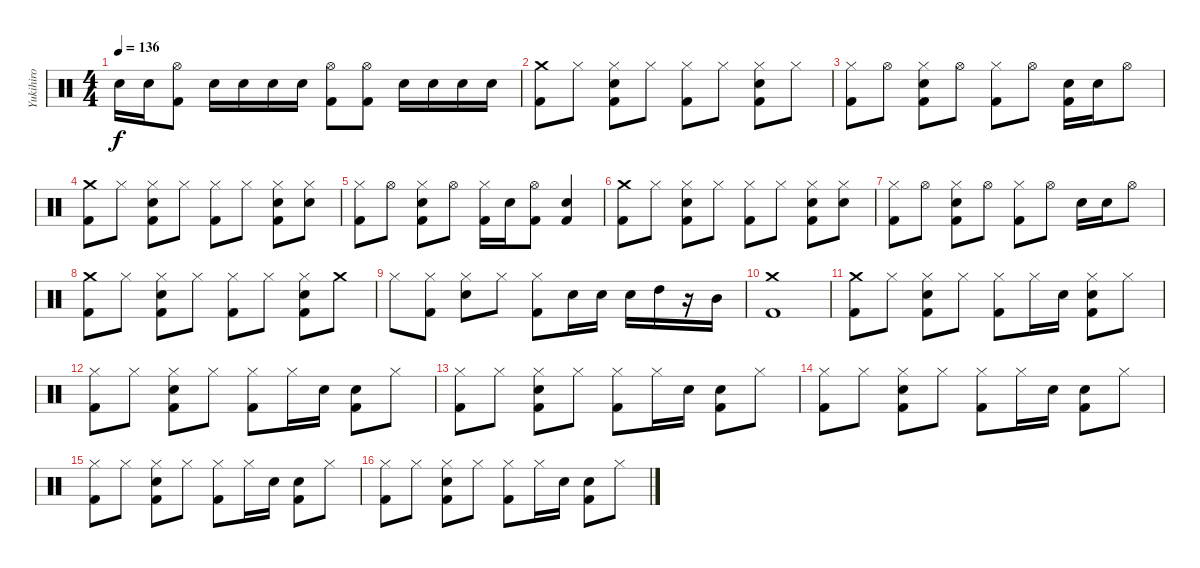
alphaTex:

\track ("Yukihiro" "Yukihiro") {instrument percussion}
\staff {score}
\articulation defaults
\ts (4 4)
\tempo 136
\clef neutral
\ks c "Snare (hit) 2".16{dy f} "Snare (hit) 2".16
("Hi-Hat (open)" "Kick (hit) 2").8 "Snare (hit) 2".16 "Snare (hit) 2".16 "Snare (hit) 2".16 "Snare (hit) 2".16 ("Hi-Hat (open)" "Kick (hit) 2").8 ("Hi-Hat (open)" "Kick (hit) 2").8 "Snare (hit) 2".16 "Snare (hit) 2".16 "Snare (hit) 2".16 "Snare (hit) 2".16 |
("Crash medium (hit)" "Kick (hit) 2").8 "Hi-Hat (closed)".8 ("Hi-Hat (closed)" "Snare (hit) 2" "Kick (hit) 2").8 "Hi-Hat (closed)".8 ("Hi-Hat (closed)" "Kick (hit) 2").8 "Hi-Hat (closed)".8 ("Hi-Hat (closed)" "Snare (hit) 2" "Kick (hit) 2").8 "Hi-Hat (closed)".8 |
("Hi-Hat (closed)" "Kick (hit) 2").8 "Hi-Hat (open)".8 ("Hi-Hat (closed)" "Snare (hit) 2" "Kick (hit) 2").8 "Hi-Hat (open)".8 ("Hi-Hat (closed)" "Kick (hit) 2").8 "Hi-Hat (open)".8 ("Snare (hit) 2" "Kick (hit) 2").16 "Snare (hit) 2".16 "Hi-Hat (open)".8 |
("Crash medium (hit)" "Kick (hit) 2").8 "Hi-Hat (closed)".8 ("Hi-Hat (closed)" "Snare (hit) 2" "Kick (hit) 2").8 "Hi-Hat (closed)".8 ("Hi-Hat (closed)" "Kick (hit) 2").8 "Hi-Hat (closed)".8 ("Hi-Hat (closed)" "Snare (hit) 2" "Kick (hit) 2").8 ("Hi-Hat (closed)" "Snare (hit) 2").8 |
("Hi-Hat (closed)" "Kick (hit) 2").8 "Hi-Hat (open)".8 ("Hi-Hat (closed)" "Snare (hit) 2" "Kick (hit) 2").8 "Hi-Hat (open)".8 ("Hi-Hat (closed)" "Kick (hit) 2").16 "Snare (hit) 2".16 ("Hi-Hat (open)" "Kick (hit) 2").8 ("Snare (hit) 2" "Kick (hit) 2").4 |
("Crash medium (hit)" "Kick (hit) 2").8 "Hi-Hat (closed)".8 ("Hi-Hat (closed)" "Snare (hit) 2" "Kick (hit) 2").8 "Hi-Hat (closed)".8 ("Hi-Hat (closed)" "Kick (hit) 2").8 "Hi-Hat (closed)".8 ("Hi-Hat (closed)" "Snare (hit) 2" "Kick (hit) 2").8 ("Hi-Hat (closed)" "Snare (hit) 2").8 |
("Hi-Hat (closed)" "Kick (hit) 2").8 "Hi-Hat (open)".8 ("Hi-Hat (closed)" "Snare (hit) 2" "Kick (hit) 2").8 "Hi-Hat (open)".8 ("Hi-Hat (closed)" "Kick (hit) 2").8 "Hi-Hat (open)".8 "Snare (hit) 2".16 "Snare (hit) 2".16 "Hi-Hat (open)".8 |
("Crash medium (hit)" "Kick (hit) 2").8 "Hi-Hat (closed)".8 ("Hi-Hat (closed)" "Snare (hit) 2" "Kick (hit) 2").8 "Hi-Hat (closed)".8 ("Hi-Hat (closed)" "Kick (hit) 2").8 "Hi-Hat (closed)".8 ("Hi-Hat (closed)" "Snare (hit) 2" "Kick (hit) 2").8 "Crash medium (hit)".8 |
"Hi-Hat (closed)".8 ("Hi-Hat (closed)" "Kick (hit) 2").8 ("Hi-Hat (closed)" "Snare (hit) 2").8 "Hi-Hat (closed)".8 ("Hi-Hat (closed)" "Kick (hit) 2").8 "Snare (hit) 2".16 "Snare (hit) 2".16 "Snare (hit) 2".16 "High Tom (hit)".16 r.16 "Mid Tom (hit)".16 |
("Crash medium (hit)" "Kick (hit) 2").1 |
("Crash medium (hit)" "Kick (hit) 2").8 "Hi-Hat (closed)".8 ("Hi-Hat (closed)" "Snare (hit) 2" "Kick (hit) 2").8 "Hi-Hat (closed)".8 ("Hi-Hat (closed)" "Kick (hit) 2").8 "Hi-Hat (closed)".16 "Snare (hit) 2".16 ("Hi-Hat (closed)" "Snare (hit) 2" "Kick (hit) 2").8 "Hi-Hat (closed)".8 |
("Hi-Hat (closed)" "Kick (hit) 2").8 "Hi-Hat (closed)".8 ("Hi-Hat (closed)" "Snare (hit) 2" "Kick (hit) 2").8 "Hi-Hat (closed)".8 ("Hi-Hat (closed)" "Kick (hit) 2").8 "Hi-Hat (closed)".16 "Snare (hit) 2".16 ("Snare (hit) 2" "Kick (hit) 2").8 "Hi-Hat (closed)".8 |
("Hi-Hat (closed)" "Kick (hit) 2").8 "Hi-Hat (closed)".8 ("Hi-Hat (closed)" "Snare (hit) 2" "Kick (hit) 2").8 "Hi-Hat (closed)".8 ("Hi-Hat (closed)" "Kick (hit) 2").8 "Hi-Hat (closed)".16 "Snare (hit) 2".16 ("Snare (hit) 2" "Kick (hit) 2").8 "Hi-Hat (closed)".8 |
("Hi-Hat (closed)" "Kick (hit) 2").8 "Hi-Hat (closed)".8 ("Hi-Hat (closed)" "Snare (hit) 2" "Kick (hit) 2").8 "Hi-Hat (closed)".8 ("Hi-Hat (closed)" "Kick (hit) 2").8 "Hi-Hat (closed)".16 "Snare (hit) 2".16 ("Snare (hit) 2" "Kick (hit) 2").8 "Hi-Hat (closed)".8 |
("Hi-Hat (closed)" "Kick (hit) 2").8 "Hi-Hat (closed)".8 ("Hi-Hat (closed)" "Snare (hit) 2" "Kick (hit) 2").8 "Hi-Hat (closed)".8 ("Hi-Hat (closed)" "Kick (hit) 2").8 "Hi-Hat (closed)".16 "Snare (hit) 2".16 ("Snare (hit) 2" "Kick (hit) 2").8 "Hi-Hat (closed)".8 |
("Hi-Hat (closed)" "Kick (hit) 2").8 "Hi-Hat (closed)".8 ("Hi-Hat (closed)" "Snare (hit) 2" "Kick (hit) 2").8 "Hi-Hat (closed)".8 ("Hi-Hat (closed)" "Kick (hit) 2").8 "Hi-Hat (closed)".16 "Snare (hit) 2".16 ("Snare (hit) 2" "Kick (hit) 2").8 "Hi-Hat (closed)".8
